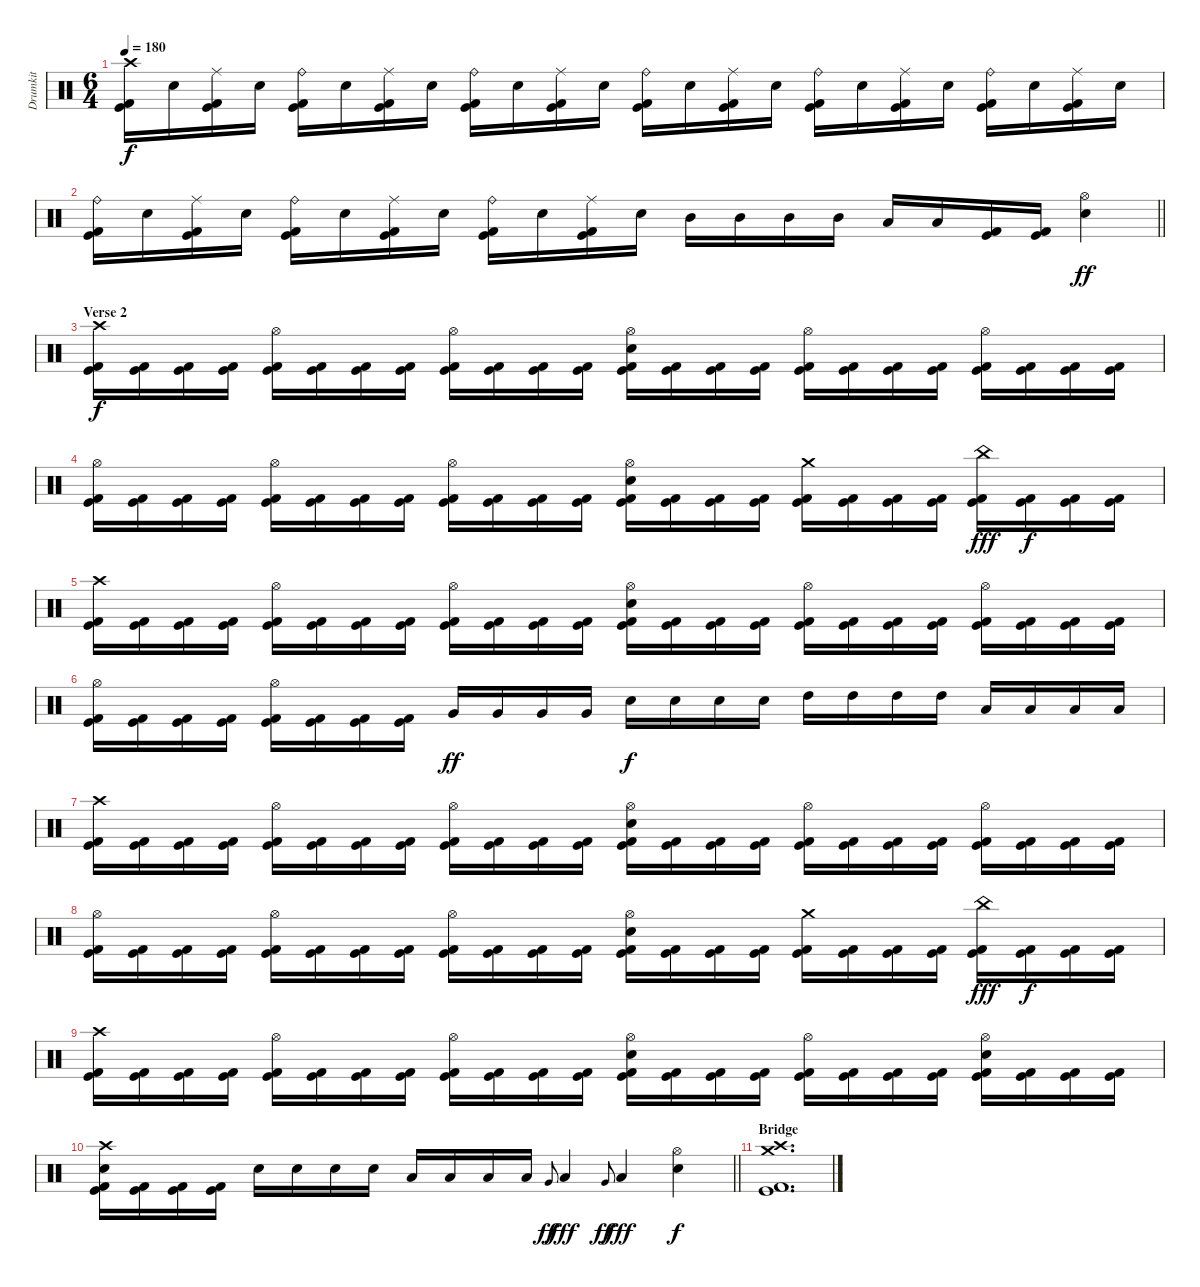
\track ("Drumkit" "Drumkit") {instrument percussion}
\staff {score}
\articulation defaults
\ts (6 4)
\tempo 180
\clef neutral
\ks c
("Crash high (hit)" "Kick (hit)" "Kick (hit) 2").16{dy f} "Electric Snare (hit)".16 ("Ride (middle)" "Kick (hit)" "Kick (hit) 2").16 "Electric Snare (hit)".16 ("Ride (bell)" "Kick (hit)" "Kick (hit) 2").16 "Electric Snare (hit)".16 ("Ride (middle)" "Kick (hit)" "Kick (hit) 2").16 "Electric Snare (hit)".16 ("Ride (bell)" "Kick (hit)" "Kick (hit) 2").16 "Electric Snare (hit)".16 ("Ride (middle)" "Kick (hit)" "Kick (hit) 2").16 "Electric Snare (hit)".16 ("Ride (bell)" "Kick (hit)" "Kick (hit) 2").16 "Electric Snare (hit)".16 ("Ride (middle)" "Kick (hit)" "Kick (hit) 2").16 "Electric Snare (hit)".16 ("Ride (bell)" "Kick (hit)" "Kick (hit) 2").16 "Electric Snare (hit)".16 ("Ride (middle)" "Kick (hit)" "Kick (hit) 2").16 "Electric Snare (hit)".16 ("Ride (bell)" "Kick (hit)" "Kick (hit) 2").16 "Electric Snare (hit)".16 ("Ride (middle)" "Kick (hit)" "Kick (hit) 2").16 "Electric Snare (hit)".16 |
\barLineRight lightlight
("Ride (bell)" "Kick (hit)" "Kick (hit) 2").16 "Electric Snare (hit)".16 ("Ride (middle)" "Kick (hit)" "Kick (hit) 2").16 "Electric Snare (hit)".16 ("Ride (bell)" "Kick (hit)" "Kick (hit) 2").16 "Electric Snare (hit)".16 ("Ride (middle)" "Kick (hit)" "Kick (hit) 2").16 "Electric Snare (hit)".16 ("Ride (bell)" "Kick (hit)" "Kick (hit) 2").16 "Electric Snare (hit)".16 ("Ride (middle)" "Kick (hit)" "Kick (hit) 2").16 "Electric Snare (hit)".16 "Mid Tom (hit)".16 "Mid Tom (hit)".16 "Mid Tom (hit)".16 "Mid Tom (hit)".16 "Low Tom (hit)".16 "Low Tom (hit)".16 ("Kick (hit)" "Kick (hit) 2").16 ("Kick (hit)" "Kick (hit) 2").16 ("Hi-Hat (open)" "Electric Snare (hit)").4{dy ff} |
\section ("" "Verse 2")
("Crash high (hit)" "Kick (hit)" "Kick (hit) 2").16{dy f} ("Kick (hit)" "Kick (hit) 2").16 ("Kick (hit)" "Kick (hit) 2").16 ("Kick (hit)" "Kick (hit) 2").16 ("Hi-Hat (open)" "Kick (hit)" "Kick (hit) 2").16 ("Kick (hit)" "Kick (hit) 2").16 ("Kick (hit)" "Kick (hit) 2").16 ("Kick (hit)" "Kick (hit) 2").16 ("Hi-Hat (open)" "Kick (hit)" "Kick (hit) 2").16 ("Kick (hit)" "Kick (hit) 2").16 ("Kick (hit)" "Kick (hit) 2").16 ("Kick (hit)" "Kick (hit) 2").16 ("Hi-Hat (open)" "Electric Snare (hit)" "Kick (hit)" "Kick (hit) 2").16 ("Kick (hit)" "Kick (hit) 2").16 ("Kick (hit)" "Kick (hit) 2").16 ("Kick (hit)" "Kick (hit) 2").16 ("Hi-Hat (open)" "Kick (hit)" "Kick (hit) 2").16 ("Kick (hit)" "Kick (hit) 2").16 ("Kick (hit)" "Kick (hit) 2").16 ("Kick (hit)" "Kick (hit) 2").16 ("Hi-Hat (open)" "Kick (hit)" "Kick (hit) 2").16 ("Kick (hit)" "Kick (hit) 2").16 ("Kick (hit)" "Kick (hit) 2").16 ("Kick (hit)" "Kick (hit) 2").16 |
("Hi-Hat (open)" "Kick (hit)" "Kick (hit) 2").16 ("Kick (hit)" "Kick (hit) 2").16 ("Kick (hit)" "Kick (hit) 2").16 ("Kick (hit)" "Kick (hit) 2").16 ("Hi-Hat (open)" "Kick (hit)" "Kick (hit) 2").16 ("Kick (hit)" "Kick (hit) 2").16 ("Kick (hit)" "Kick (hit) 2").16 ("Kick (hit)" "Kick (hit) 2").16 ("Hi-Hat (open)" "Kick (hit)" "Kick (hit) 2").16 ("Kick (hit)" "Kick (hit) 2").16 ("Kick (hit)" "Kick (hit) 2").16 ("Kick (hit)" "Kick (hit) 2").16 ("Hi-Hat (open)" "Electric Snare (hit)" "Kick (hit)" "Kick (hit) 2").16 ("Kick (hit)" "Kick (hit) 2").16 ("Kick (hit)" "Kick (hit) 2").16 ("Kick (hit)" "Kick (hit) 2").16 ("Crash medium (hit)" "Kick (hit)" "Kick (hit) 2").16 ("Kick (hit)" "Kick (hit) 2").16 ("Kick (hit)" "Kick (hit) 2").16 ("Kick (hit)" "Kick (hit) 2").16 ("China (hit)" "Kick (hit)" "Kick (hit) 2").16{dy fff} ("Kick (hit)" "Kick (hit) 2").16{dy f} ("Kick (hit)" "Kick (hit) 2").16 ("Kick (hit)" "Kick (hit) 2").16 |
("Crash high (hit)" "Kick (hit)" "Kick (hit) 2").16 ("Kick (hit)" "Kick (hit) 2").16 ("Kick (hit)" "Kick (hit) 2").16 ("Kick (hit)" "Kick (hit) 2").16 ("Hi-Hat (open)" "Kick (hit)" "Kick (hit) 2").16 ("Kick (hit)" "Kick (hit) 2").16 ("Kick (hit)" "Kick (hit) 2").16 ("Kick (hit)" "Kick (hit) 2").16 ("Hi-Hat (open)" "Kick (hit)" "Kick (hit) 2").16 ("Kick (hit)" "Kick (hit) 2").16 ("Kick (hit)" "Kick (hit) 2").16 ("Kick (hit)" "Kick (hit) 2").16 ("Hi-Hat (open)" "Electric Snare (hit)" "Kick (hit)" "Kick (hit) 2").16 ("Kick (hit)" "Kick (hit) 2").16 ("Kick (hit)" "Kick (hit) 2").16 ("Kick (hit)" "Kick (hit) 2").16 ("Hi-Hat (open)" "Kick (hit)" "Kick (hit) 2").16 ("Kick (hit)" "Kick (hit) 2").16 ("Kick (hit)" "Kick (hit) 2").16 ("Kick (hit)" "Kick (hit) 2").16 ("Hi-Hat (open)" "Kick (hit)" "Kick (hit) 2").16 ("Kick (hit)" "Kick (hit) 2").16 ("Kick (hit)" "Kick (hit) 2").16 ("Kick (hit)" "Kick (hit) 2").16 |
("Hi-Hat (open)" "Kick (hit)" "Kick (hit) 2").16 ("Kick (hit)" "Kick (hit) 2").16 ("Kick (hit)" "Kick (hit) 2").16 ("Kick (hit)" "Kick (hit) 2").16 ("Hi-Hat (open)" "Kick (hit)" "Kick (hit) 2").16 ("Kick (hit)" "Kick (hit) 2").16 ("Kick (hit)" "Kick (hit) 2").16 ("Kick (hit)" "Kick (hit) 2").16 "Very Low Tom (hit)".16{dy ff} "Very Low Tom (hit)".16 "Very Low Tom (hit)".16 "Very Low Tom (hit)".16 "Electric Snare (hit)".16{dy f} "Electric Snare (hit)".16 "Electric Snare (hit)".16 "Electric Snare (hit)".16 "High Tom (hit)".16 "High Tom (hit)".16 "High Tom (hit)".16 "High Tom (hit)".16 "Low Tom (hit)".16 "Low Tom (hit)".16 "Low Tom (hit)".16 "Low Tom (hit)".16 |
("Crash high (hit)" "Kick (hit)" "Kick (hit) 2").16 ("Kick (hit)" "Kick (hit) 2").16 ("Kick (hit)" "Kick (hit) 2").16 ("Kick (hit)" "Kick (hit) 2").16 ("Hi-Hat (open)" "Kick (hit)" "Kick (hit) 2").16 ("Kick (hit)" "Kick (hit) 2").16 ("Kick (hit)" "Kick (hit) 2").16 ("Kick (hit)" "Kick (hit) 2").16 ("Hi-Hat (open)" "Kick (hit)" "Kick (hit) 2").16 ("Kick (hit)" "Kick (hit) 2").16 ("Kick (hit)" "Kick (hit) 2").16 ("Kick (hit)" "Kick (hit) 2").16 ("Hi-Hat (open)" "Electric Snare (hit)" "Kick (hit)" "Kick (hit) 2").16 ("Kick (hit)" "Kick (hit) 2").16 ("Kick (hit)" "Kick (hit) 2").16 ("Kick (hit)" "Kick (hit) 2").16 ("Hi-Hat (open)" "Kick (hit)" "Kick (hit) 2").16 ("Kick (hit)" "Kick (hit) 2").16 ("Kick (hit)" "Kick (hit) 2").16 ("Kick (hit)" "Kick (hit) 2").16 ("Hi-Hat (open)" "Kick (hit)" "Kick (hit) 2").16 ("Kick (hit)" "Kick (hit) 2").16 ("Kick (hit)" "Kick (hit) 2").16 ("Kick (hit)" "Kick (hit) 2").16 |
("Hi-Hat (open)" "Kick (hit)" "Kick (hit) 2").16 ("Kick (hit)" "Kick (hit) 2").16 ("Kick (hit)" "Kick (hit) 2").16 ("Kick (hit)" "Kick (hit) 2").16 ("Hi-Hat (open)" "Kick (hit)" "Kick (hit) 2").16 ("Kick (hit)" "Kick (hit) 2").16 ("Kick (hit)" "Kick (hit) 2").16 ("Kick (hit)" "Kick (hit) 2").16 ("Hi-Hat (open)" "Kick (hit)" "Kick (hit) 2").16 ("Kick (hit)" "Kick (hit) 2").16 ("Kick (hit)" "Kick (hit) 2").16 ("Kick (hit)" "Kick (hit) 2").16 ("Hi-Hat (open)" "Electric Snare (hit)" "Kick (hit)" "Kick (hit) 2").16 ("Kick (hit)" "Kick (hit) 2").16 ("Kick (hit)" "Kick (hit) 2").16 ("Kick (hit)" "Kick (hit) 2").16 ("Crash medium (hit)" "Kick (hit)" "Kick (hit) 2").16 ("Kick (hit)" "Kick (hit) 2").16 ("Kick (hit)" "Kick (hit) 2").16 ("Kick (hit)" "Kick (hit) 2").16 ("China (hit)" "Kick (hit)" "Kick (hit) 2").16{dy fff} ("Kick (hit)" "Kick (hit) 2").16{dy f} ("Kick (hit)" "Kick (hit) 2").16 ("Kick (hit)" "Kick (hit) 2").16 |
("Crash high (hit)" "Kick (hit)" "Kick (hit) 2").16 ("Kick (hit)" "Kick (hit) 2").16 ("Kick (hit)" "Kick (hit) 2").16 ("Kick (hit)" "Kick (hit) 2").16 ("Hi-Hat (open)" "Kick (hit)" "Kick (hit) 2").16 ("Kick (hit)" "Kick (hit) 2").16 ("Kick (hit)" "Kick (hit) 2").16 ("Kick (hit)" "Kick (hit) 2").16 ("Hi-Hat (open)" "Kick (hit)" "Kick (hit) 2").16 ("Kick (hit)" "Kick (hit) 2").16 ("Kick (hit)" "Kick (hit) 2").16 ("Kick (hit)" "Kick (hit) 2").16 ("Hi-Hat (open)" "Electric Snare (hit)" "Kick (hit)" "Kick (hit) 2").16 ("Kick (hit)" "Kick (hit) 2").16 ("Kick (hit)" "Kick (hit) 2").16 ("Kick (hit)" "Kick (hit) 2").16 ("Hi-Hat (open)" "Kick (hit)" "Kick (hit) 2").16 ("Kick (hit)" "Kick (hit) 2").16 ("Kick (hit)" "Kick (hit) 2").16 ("Kick (hit)" "Kick (hit) 2").16 ("Hi-Hat (open)" "Electric Snare (hit)" "Kick (hit)" "Kick (hit) 2").16 ("Kick (hit)" "Kick (hit) 2").16 ("Kick (hit)" "Kick (hit) 2").16 ("Kick (hit)" "Kick (hit) 2").16 |
\barLineRight lightlight
("Crash high (hit)" "Electric Snare (hit)" "Kick (hit)" "Kick (hit) 2").16 ("Kick (hit)" "Kick (hit) 2").16 ("Kick (hit)" "Kick (hit) 2").16 ("Kick (hit)" "Kick (hit) 2").16 "Electric Snare (hit)".16 "Electric Snare (hit)".16 "Electric Snare (hit)".16 "Electric Snare (hit)".16 "Low Tom (hit)".16 "Low Tom (hit)".16 "Low Tom (hit)".16 "Low Tom (hit)".16 "Very Low Tom (hit)".8{gr onbeat dy ff} "Low Floor Tom (hit)".4{dy fff} "Very Low Tom (hit)".8{gr onbeat dy ff} "Low Floor Tom (hit)".4{dy fff} ("Hi-Hat (open)" "Electric Snare (hit)").4{dy f} |
\section ("" "Bridge")
("Crash high (hit)" "Crash medium (hit)" "Kick (hit)" "Kick (hit) 2").1{d}
